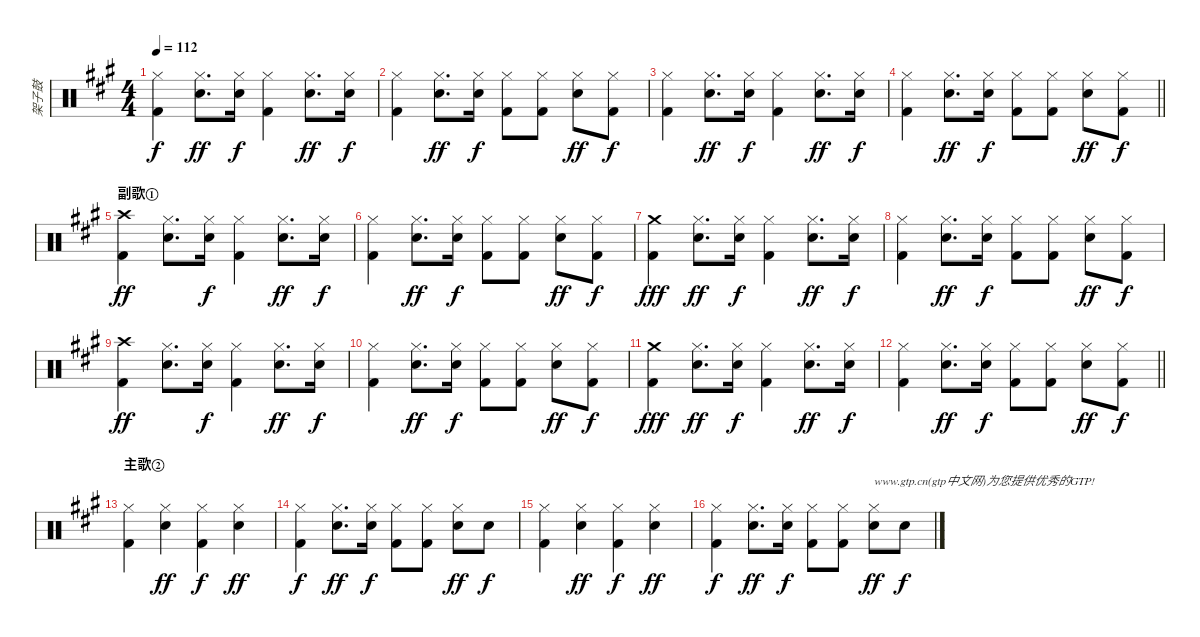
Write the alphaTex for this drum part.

\track ("架子鼓" "架子鼓") {instrument percussion}
\staff {score}
\articulation defaults
\ts (4 4)
\tempo 112
\clef neutral
\ks a
("Hi-Hat (closed)" "Kick (hit) 2").4{dy f} ("Hi-Hat (closed)" "Electric Snare (hit)").8{d dy ff} ("Hi-Hat (closed)" "Electric Snare (hit)").16{dy f} ("Hi-Hat (closed)" "Kick (hit) 2").4 ("Hi-Hat (closed)" "Electric Snare (hit)").8{d dy ff} ("Hi-Hat (closed)" "Electric Snare (hit)").16{dy f} |
("Hi-Hat (closed)" "Kick (hit) 2").4 ("Hi-Hat (closed)" "Electric Snare (hit)").8{d dy ff} ("Hi-Hat (closed)" "Electric Snare (hit)").16{dy f} ("Hi-Hat (closed)" "Kick (hit) 2").8 ("Hi-Hat (closed)" "Kick (hit) 2").8 ("Hi-Hat (closed)" "Electric Snare (hit)").8{dy ff} ("Hi-Hat (closed)" "Kick (hit) 2").8{dy f} |
("Hi-Hat (closed)" "Kick (hit) 2").4 ("Hi-Hat (closed)" "Electric Snare (hit)").8{d dy ff} ("Hi-Hat (closed)" "Electric Snare (hit)").16{dy f} ("Hi-Hat (closed)" "Kick (hit) 2").4 ("Hi-Hat (closed)" "Electric Snare (hit)").8{d dy ff} ("Hi-Hat (closed)" "Electric Snare (hit)").16{dy f} |
\barLineRight lightlight
("Hi-Hat (closed)" "Kick (hit) 2").4 ("Hi-Hat (closed)" "Electric Snare (hit)").8{d dy ff} ("Hi-Hat (closed)" "Electric Snare (hit)").16{dy f} ("Hi-Hat (closed)" "Kick (hit) 2").8 ("Hi-Hat (closed)" "Kick (hit) 2").8 ("Hi-Hat (closed)" "Electric Snare (hit)").8{dy ff} ("Hi-Hat (closed)" "Kick (hit) 2").8{dy f} |
\section ("" "副歌①")
("Crash high (hit)" "Kick (hit) 2").4{dy ff} ("Hi-Hat (closed)" "Electric Snare (hit)").8{d} ("Hi-Hat (closed)" "Electric Snare (hit)").16{dy f} ("Hi-Hat (closed)" "Kick (hit) 2").4 ("Hi-Hat (closed)" "Electric Snare (hit)").8{d dy ff} ("Hi-Hat (closed)" "Electric Snare (hit)").16{dy f} |
("Hi-Hat (closed)" "Kick (hit) 2").4 ("Hi-Hat (closed)" "Electric Snare (hit)").8{d dy ff} ("Hi-Hat (closed)" "Electric Snare (hit)").16{dy f} ("Hi-Hat (closed)" "Kick (hit) 2").8 ("Hi-Hat (closed)" "Kick (hit) 2").8 ("Hi-Hat (closed)" "Electric Snare (hit)").8{dy ff} ("Hi-Hat (closed)" "Kick (hit) 2").8{dy f} |
("Crash medium (hit)" "Kick (hit) 2").4{dy fff} ("Hi-Hat (closed)" "Electric Snare (hit)").8{d dy ff} ("Hi-Hat (closed)" "Electric Snare (hit)").16{dy f} ("Hi-Hat (closed)" "Kick (hit) 2").4 ("Hi-Hat (closed)" "Electric Snare (hit)").8{d dy ff} ("Hi-Hat (closed)" "Electric Snare (hit)").16{dy f} |
("Hi-Hat (closed)" "Kick (hit) 2").4 ("Hi-Hat (closed)" "Electric Snare (hit)").8{d dy ff} ("Hi-Hat (closed)" "Electric Snare (hit)").16{dy f} ("Hi-Hat (closed)" "Kick (hit) 2").8 ("Hi-Hat (closed)" "Kick (hit) 2").8 ("Hi-Hat (closed)" "Electric Snare (hit)").8{dy ff} ("Hi-Hat (closed)" "Kick (hit) 2").8{dy f} |
("Crash high (hit)" "Kick (hit) 2").4{dy ff} ("Hi-Hat (closed)" "Electric Snare (hit)").8{d} ("Hi-Hat (closed)" "Electric Snare (hit)").16{dy f} ("Hi-Hat (closed)" "Kick (hit) 2").4 ("Hi-Hat (closed)" "Electric Snare (hit)").8{d dy ff} ("Hi-Hat (closed)" "Electric Snare (hit)").16{dy f} |
("Hi-Hat (closed)" "Kick (hit) 2").4 ("Hi-Hat (closed)" "Electric Snare (hit)").8{d dy ff} ("Hi-Hat (closed)" "Electric Snare (hit)").16{dy f} ("Hi-Hat (closed)" "Kick (hit) 2").8 ("Hi-Hat (closed)" "Kick (hit) 2").8 ("Hi-Hat (closed)" "Electric Snare (hit)").8{dy ff} ("Hi-Hat (closed)" "Kick (hit) 2").8{dy f} |
("Crash medium (hit)" "Kick (hit) 2").4{dy fff} ("Hi-Hat (closed)" "Electric Snare (hit)").8{d dy ff} ("Hi-Hat (closed)" "Electric Snare (hit)").16{dy f} ("Hi-Hat (closed)" "Kick (hit) 2").4 ("Hi-Hat (closed)" "Electric Snare (hit)").8{d dy ff} ("Hi-Hat (closed)" "Electric Snare (hit)").16{dy f} |
\barLineRight lightlight
("Hi-Hat (closed)" "Kick (hit) 2").4 ("Hi-Hat (closed)" "Electric Snare (hit)").8{d dy ff} ("Hi-Hat (closed)" "Electric Snare (hit)").16{dy f} ("Hi-Hat (closed)" "Kick (hit) 2").8 ("Hi-Hat (closed)" "Kick (hit) 2").8 ("Hi-Hat (closed)" "Electric Snare (hit)").8{dy ff} ("Hi-Hat (closed)" "Kick (hit) 2").8{dy f} |
\section ("" "主歌②")
("Hi-Hat (closed)" "Kick (hit) 2").4 ("Hi-Hat (closed)" "Electric Snare (hit)").4{dy ff} ("Hi-Hat (closed)" "Kick (hit) 2").4{dy f} ("Hi-Hat (closed)" "Electric Snare (hit)").4{dy ff} |
("Hi-Hat (closed)" "Kick (hit) 2").4{dy f} ("Hi-Hat (closed)" "Electric Snare (hit)").8{d dy ff} ("Hi-Hat (closed)" "Electric Snare (hit)").16{dy f} ("Hi-Hat (closed)" "Kick (hit) 2").8 ("Hi-Hat (closed)" "Kick (hit) 2").8 ("Hi-Hat (closed)" "Electric Snare (hit)").8{dy ff} "Electric Snare (hit)".8{dy f} |
("Hi-Hat (closed)" "Kick (hit) 2").4 ("Hi-Hat (closed)" "Electric Snare (hit)").4{dy ff} ("Hi-Hat (closed)" "Kick (hit) 2").4{dy f} ("Hi-Hat (closed)" "Electric Snare (hit)").4{dy ff} |
("Hi-Hat (closed)" "Kick (hit) 2").4{dy f} ("Hi-Hat (closed)" "Electric Snare (hit)").8{d dy ff} ("Hi-Hat (closed)" "Electric Snare (hit)").16{dy f} ("Hi-Hat (closed)" "Kick (hit) 2").8 ("Hi-Hat (closed)" "Kick (hit) 2").8 ("Hi-Hat (closed)" "Electric Snare (hit)").8{txt "www.gtp.cn(gtp中文网)为您提供优秀的GTP!" dy ff} "Electric Snare (hit)".8{dy f}
